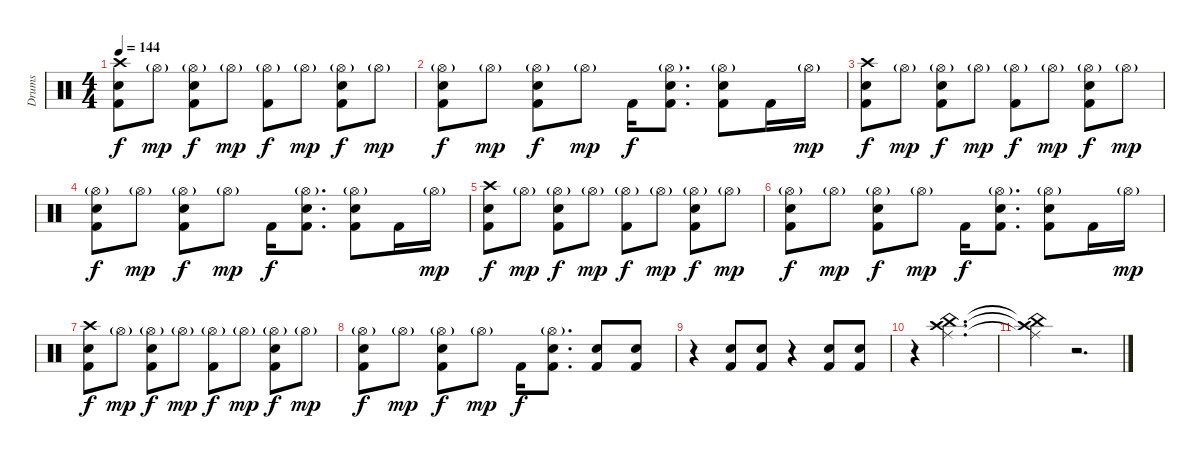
\track ("Drums" "Drums") {instrument percussion}
\staff {score}
\articulation defaults
\ts (4 4)
\tempo 144
\clef neutral
\ks c
("Crash high (hit)" "Snare (hit) 2" "Kick (hit) 2").8{dy f} "Hi-Hat (open)"{g}.8{dy mp} ("Hi-Hat (open)"{g} "Snare (hit) 2" "Kick (hit) 2").8{dy f} "Hi-Hat (open)"{g}.8{dy mp} ("Hi-Hat (open)"{g} "Kick (hit) 2").8{dy f} "Hi-Hat (open)"{g}.8{dy mp} ("Hi-Hat (open)"{g} "Snare (hit) 2" "Kick (hit) 2").8{dy f} "Hi-Hat (open)"{g}.8{dy mp} |
("Hi-Hat (open)"{g} "Snare (hit) 2" "Kick (hit) 2").8{dy f} "Hi-Hat (open)"{g}.8{dy mp} ("Hi-Hat (open)"{g} "Snare (hit) 2" "Kick (hit) 2").8{dy f} "Hi-Hat (open)"{g}.8{dy mp} "Kick (hit) 2".16{dy f} ("Hi-Hat (open)"{g} "Snare (hit) 2" "Kick (hit) 2").8{d} ("Hi-Hat (open)"{g} "Snare (hit) 2" "Kick (hit) 2").8 "Kick (hit) 2".16 "Hi-Hat (open)"{g}.16{dy mp} |
("Crash high (hit)" "Snare (hit) 2" "Kick (hit) 2").8{dy f} "Hi-Hat (open)"{g}.8{dy mp} ("Hi-Hat (open)"{g} "Snare (hit) 2" "Kick (hit) 2").8{dy f} "Hi-Hat (open)"{g}.8{dy mp} ("Hi-Hat (open)"{g} "Kick (hit) 2").8{dy f} "Hi-Hat (open)"{g}.8{dy mp} ("Hi-Hat (open)"{g} "Snare (hit) 2" "Kick (hit) 2").8{dy f} "Hi-Hat (open)"{g}.8{dy mp} |
("Hi-Hat (open)"{g} "Snare (hit) 2" "Kick (hit) 2").8{dy f} "Hi-Hat (open)"{g}.8{dy mp} ("Hi-Hat (open)"{g} "Snare (hit) 2" "Kick (hit) 2").8{dy f} "Hi-Hat (open)"{g}.8{dy mp} "Kick (hit) 2".16{dy f} ("Hi-Hat (open)"{g} "Snare (hit) 2" "Kick (hit) 2").8{d} ("Hi-Hat (open)"{g} "Snare (hit) 2" "Kick (hit) 2").8 "Kick (hit) 2".16 "Hi-Hat (open)"{g}.16{dy mp} |
("Crash high (hit)" "Snare (hit) 2" "Kick (hit) 2").8{dy f} "Hi-Hat (open)"{g}.8{dy mp} ("Hi-Hat (open)"{g} "Snare (hit) 2" "Kick (hit) 2").8{dy f} "Hi-Hat (open)"{g}.8{dy mp} ("Hi-Hat (open)"{g} "Kick (hit) 2").8{dy f} "Hi-Hat (open)"{g}.8{dy mp} ("Hi-Hat (open)"{g} "Snare (hit) 2" "Kick (hit) 2").8{dy f} "Hi-Hat (open)"{g}.8{dy mp} |
("Hi-Hat (open)"{g} "Snare (hit) 2" "Kick (hit) 2").8{dy f} "Hi-Hat (open)"{g}.8{dy mp} ("Hi-Hat (open)"{g} "Snare (hit) 2" "Kick (hit) 2").8{dy f} "Hi-Hat (open)"{g}.8{dy mp} "Kick (hit) 2".16{dy f} ("Hi-Hat (open)"{g} "Snare (hit) 2" "Kick (hit) 2").8{d} ("Hi-Hat (open)"{g} "Snare (hit) 2" "Kick (hit) 2").8 "Kick (hit) 2".16 "Hi-Hat (open)"{g}.16{dy mp} |
("Crash high (hit)" "Snare (hit) 2" "Kick (hit) 2").8{dy f} "Hi-Hat (open)"{g}.8{dy mp} ("Hi-Hat (open)"{g} "Snare (hit) 2" "Kick (hit) 2").8{dy f} "Hi-Hat (open)"{g}.8{dy mp} ("Hi-Hat (open)"{g} "Kick (hit) 2").8{dy f} "Hi-Hat (open)"{g}.8{dy mp} ("Hi-Hat (open)"{g} "Snare (hit) 2" "Kick (hit) 2").8{dy f} "Hi-Hat (open)"{g}.8{dy mp} |
("Hi-Hat (open)"{g} "Snare (hit) 2" "Kick (hit) 2").8{dy f} "Hi-Hat (open)"{g}.8{dy mp} ("Hi-Hat (open)"{g} "Snare (hit) 2" "Kick (hit) 2").8{dy f} "Hi-Hat (open)"{g}.8{dy mp} "Kick (hit) 2".16{dy f} ("Hi-Hat (open)"{g} "Snare (hit) 2" "Kick (hit) 2").8{d} ("Snare (hit) 2" "Kick (hit) 2").8 ("Snare (hit) 2" "Kick (hit) 2").8 |
r.4 ("Snare (hit) 2" "Kick (hit) 2").8 ("Snare (hit) 2" "Kick (hit) 2").8 r.4 ("Snare (hit) 2" "Kick (hit) 2").8 ("Snare (hit) 2" "Kick (hit) 2").8 |
r.4 ("Crash high (hit)" "Ride (middle)" "China (hit)").2{d} |
("Crash high (hit)"{t} "Ride (middle)"{t} "China (hit)"{t}).4 r.2{d}
